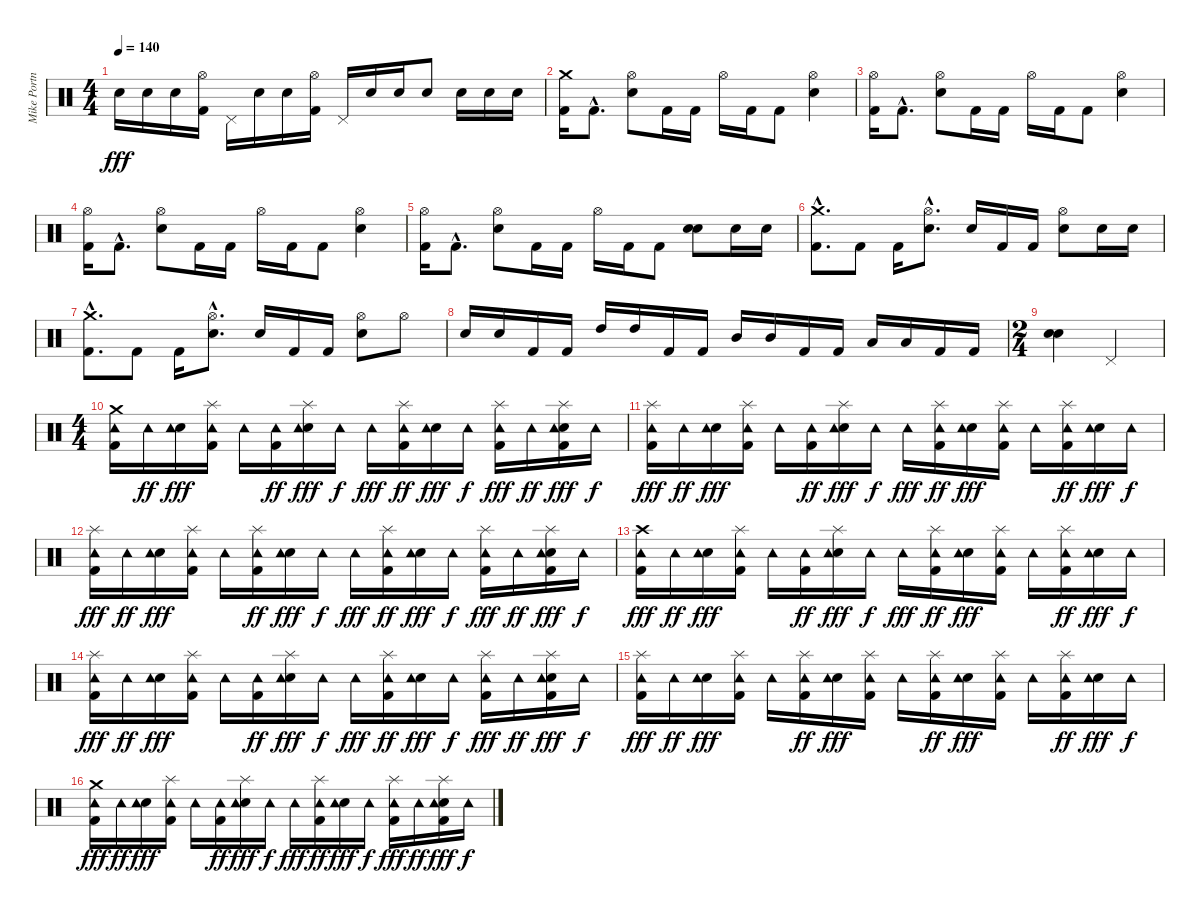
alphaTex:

\track ("Mike Portnoy - Drum" "Mike Portn") {instrument percussion}
\staff {score}
\articulation defaults
\ts (4 4)
\tempo 140
\clef neutral
\ks c "Snare (hit) 2".16{dy fff} "Snare (hit) 2".16 "Snare (hit) 2".16
("Hi-Hat (open)" "Kick (hit) 2").16 "Pedal Hi-Hat (hit)".16 "Snare (hit) 2".16 "Snare (hit) 2".16 ("Hi-Hat (open)" "Kick (hit) 2").16 "Pedal Hi-Hat (hit)".16 "Snare (hit) 2".16 "Snare (hit) 2".16 "Snare (hit) 2".8 "Snare (hit) 2".16 "Snare (hit) 2".16 "Snare (hit) 2".16 |
("Crash medium (hit)" "Kick (hit) 2").16 "Kick (hit) 2"{hac}.8{d} ("Hi-Hat (open)" "Snare (hit) 2").8 "Kick (hit) 2".16 "Kick (hit) 2".16 "Hi-Hat (open)".16 "Kick (hit) 2".16 "Kick (hit) 2".8 ("Hi-Hat (open)" "Snare (hit) 2").4 |
("Hi-Hat (open)" "Kick (hit) 2").16 "Kick (hit) 2"{hac}.8{d} ("Hi-Hat (open)" "Snare (hit) 2").8 "Kick (hit) 2".16 "Kick (hit) 2".16 "Hi-Hat (open)".16 "Kick (hit) 2".16 "Kick (hit) 2".8 ("Hi-Hat (open)" "Snare (hit) 2").4 |
("Hi-Hat (open)" "Kick (hit) 2").16 "Kick (hit) 2"{hac}.8{d} ("Hi-Hat (open)" "Snare (hit) 2").8 "Kick (hit) 2".16 "Kick (hit) 2".16 "Hi-Hat (open)".16 "Kick (hit) 2".16 "Kick (hit) 2".8 ("Hi-Hat (open)" "Snare (hit) 2").4 |
("Hi-Hat (open)" "Kick (hit) 2").16 "Kick (hit) 2"{hac}.8{d} ("Hi-Hat (open)" "Snare (hit) 2").8 "Kick (hit) 2".16 "Kick (hit) 2".16 "Hi-Hat (open)".16 "Kick (hit) 2".16 "Kick (hit) 2".8 ("Snare (hit) 2" "Snare (hit) 2").8 "Snare (hit) 2".16 "Snare (hit) 2".16 |
("Crash medium (hit)"{hac} "Kick (hit) 2"{hac}).8{d} "Kick (hit) 2".8 "Kick (hit) 2".16 ("Hi-Hat (open)"{hac} "Snare (hit) 2"{hac}).8{d} "Snare (hit) 2".16 "Kick (hit) 2".16 "Kick (hit) 2".16 ("Hi-Hat (open)" "Snare (hit) 2").8 "Snare (hit) 2".16 "Snare (hit) 2".16 |
("Crash medium (hit)"{hac} "Kick (hit) 2"{hac}).8{d} "Kick (hit) 2".8 "Kick (hit) 2".16 ("Hi-Hat (open)"{hac} "Snare (hit) 2"{hac}).8{d} "Snare (hit) 2".16 "Kick (hit) 2".16 "Kick (hit) 2".16 ("Hi-Hat (open)" "Snare (hit) 2").8 "Hi-Hat (open)".8 |
"Snare (hit) 2".16 "Snare (hit) 2".16 "Kick (hit) 2".16 "Kick (hit) 2".16 "High Tom (hit)".16 "High Tom (hit)".16 "Kick (hit) 2".16 "Kick (hit) 2".16 "Mid Tom (hit)".16 "Mid Tom (hit)".16 "Kick (hit) 2".16 "Kick (hit) 2".16 "Low Tom (hit)".16 "Low Tom (hit)".16 "Kick (hit) 2".16 "Kick (hit) 2".16 |
\ts (2 4)
("Snare (hit) 2" "Snare (hit) 2").4 "Pedal Hi-Hat (hit)".4 |
\ts (4 4)
("Crash medium (hit)" "Kick (hit) 2" "Tambourine (hit)").16 "Tambourine (hit)".16{dy ff} ("Snare (hit) 2" "Tambourine (hit)").16{dy fff} ("Splash (hit)" "Kick (hit) 2" "Tambourine (hit)").16 "Tambourine (hit)".16 ("Kick (hit) 2" "Tambourine (hit)").16{dy ff} ("Splash (hit)" "Snare (hit) 2" "Tambourine (hit)").16{dy fff} "Tambourine (hit)".16{dy f} "Tambourine (hit)".16{dy fff} ("Splash (hit)" "Kick (hit) 2" "Tambourine (hit)").16{dy ff} ("Snare (hit) 2" "Tambourine (hit)").16{dy fff} "Tambourine (hit)".16{dy f} ("Splash (hit)" "Kick (hit) 2" "Tambourine (hit)").16{dy fff} "Tambourine (hit)".16{dy ff} ("Splash (hit)" "Snare (hit) 2" "Kick (hit) 2" "Tambourine (hit)").16{dy fff} "Tambourine (hit)".16{dy f} |
("Splash (hit)" "Kick (hit) 2" "Tambourine (hit)").16{dy fff} "Tambourine (hit)".16{dy ff} ("Snare (hit) 2" "Tambourine (hit)").16{dy fff} ("Splash (hit)" "Kick (hit) 2" "Tambourine (hit)").16 "Tambourine (hit)".16 ("Kick (hit) 2" "Tambourine (hit)").16{dy ff} ("Splash (hit)" "Snare (hit) 2" "Tambourine (hit)").16{dy fff} "Tambourine (hit)".16{dy f} "Tambourine (hit)".16{dy fff} ("Splash (hit)" "Kick (hit) 2" "Tambourine (hit)").16{dy ff} ("Snare (hit) 2" "Tambourine (hit)").16{dy fff} ("Splash (hit)" "Kick (hit) 2" "Tambourine (hit)").16 "Tambourine (hit)".16 ("Splash (hit)" "Kick (hit) 2" "Tambourine (hit)").16{dy ff} ("Snare (hit) 2" "Tambourine (hit)").16{dy fff} "Tambourine (hit)".16{dy f} |
("Splash (hit)" "Kick (hit) 2" "Tambourine (hit)").16{dy fff} "Tambourine (hit)".16{dy ff} ("Snare (hit) 2" "Tambourine (hit)").16{dy fff} ("Splash (hit)" "Kick (hit) 2" "Tambourine (hit)").16 "Tambourine (hit)".16 ("Splash (hit)" "Kick (hit) 2" "Tambourine (hit)").16{dy ff} ("Snare (hit) 2" "Tambourine (hit)").16{dy fff} "Tambourine (hit)".16{dy f} "Tambourine (hit)".16{dy fff} ("Splash (hit)" "Kick (hit) 2" "Tambourine (hit)").16{dy ff} ("Snare (hit) 2" "Tambourine (hit)").16{dy fff} "Tambourine (hit)".16{dy f} ("Splash (hit)" "Kick (hit) 2" "Tambourine (hit)").16{dy fff} "Tambourine (hit)".16{dy ff} ("Splash (hit)" "Snare (hit) 2" "Kick (hit) 2" "Tambourine (hit)").16{dy fff} "Tambourine (hit)".16{dy f} |
("Crash high (hit)" "Kick (hit) 2" "Tambourine (hit)").16{dy fff} "Tambourine (hit)".16{dy ff} ("Snare (hit) 2" "Tambourine (hit)").16{dy fff} ("Splash (hit)" "Kick (hit) 2" "Tambourine (hit)").16 "Tambourine (hit)".16 ("Kick (hit) 2" "Tambourine (hit)").16{dy ff} ("Splash (hit)" "Snare (hit) 2" "Tambourine (hit)").16{dy fff} "Tambourine (hit)".16{dy f} "Tambourine (hit)".16{dy fff} ("Splash (hit)" "Kick (hit) 2" "Tambourine (hit)").16{dy ff} ("Snare (hit) 2" "Tambourine (hit)").16{dy fff} ("Splash (hit)" "Kick (hit) 2" "Tambourine (hit)").16 "Tambourine (hit)".16 ("Splash (hit)" "Kick (hit) 2" "Tambourine (hit)").16{dy ff} ("Snare (hit) 2" "Tambourine (hit)").16{dy fff} "Tambourine (hit)".16{dy f} |
("Splash (hit)" "Kick (hit) 2" "Tambourine (hit)").16{dy fff} "Tambourine (hit)".16{dy ff} ("Snare (hit) 2" "Tambourine (hit)").16{dy fff} ("Splash (hit)" "Kick (hit) 2" "Tambourine (hit)").16 "Tambourine (hit)".16 ("Kick (hit) 2" "Tambourine (hit)").16{dy ff} ("Splash (hit)" "Snare (hit) 2" "Tambourine (hit)").16{dy fff} "Tambourine (hit)".16{dy f} "Tambourine (hit)".16{dy fff} ("Splash (hit)" "Kick (hit) 2" "Tambourine (hit)").16{dy ff} ("Snare (hit) 2" "Tambourine (hit)").16{dy fff} "Tambourine (hit)".16{dy f} ("Splash (hit)" "Kick (hit) 2" "Tambourine (hit)").16{dy fff} "Tambourine (hit)".16{dy ff} ("Splash (hit)" "Snare (hit) 2" "Kick (hit) 2" "Tambourine (hit)").16{dy fff} "Tambourine (hit)".16{dy f} |
("Splash (hit)" "Kick (hit) 2" "Tambourine (hit)").16{dy fff} "Tambourine (hit)".16{dy ff} ("Snare (hit) 2" "Tambourine (hit)").16{dy fff} ("Splash (hit)" "Kick (hit) 2" "Tambourine (hit)").16 "Tambourine (hit)".16 ("Splash (hit)" "Kick (hit) 2" "Tambourine (hit)").16{dy ff} ("Snare (hit) 2" "Tambourine (hit)").16{dy fff} ("Splash (hit)" "Kick (hit) 2" "Tambourine (hit)").16 "Tambourine (hit)".16 ("Splash (hit)" "Kick (hit) 2" "Tambourine (hit)").16{dy ff} ("Snare (hit) 2" "Tambourine (hit)").16{dy fff} ("Splash (hit)" "Kick (hit) 2" "Tambourine (hit)").16 "Tambourine (hit)".16 ("Splash (hit)" "Kick (hit) 2" "Tambourine (hit)").16{dy ff} ("Snare (hit) 2" "Tambourine (hit)").16{dy fff} "Tambourine (hit)".16{dy f} |
("Crash medium (hit)" "Kick (hit) 2" "Tambourine (hit)").16{dy fff} "Tambourine (hit)".16{dy ff} ("Snare (hit) 2" "Tambourine (hit)").16{dy fff} ("Splash (hit)" "Kick (hit) 2" "Tambourine (hit)").16 "Tambourine (hit)".16 ("Kick (hit) 2" "Tambourine (hit)").16{dy ff} ("Splash (hit)" "Snare (hit) 2" "Tambourine (hit)").16{dy fff} "Tambourine (hit)".16{dy f} "Tambourine (hit)".16{dy fff} ("Splash (hit)" "Kick (hit) 2" "Tambourine (hit)").16{dy ff} ("Snare (hit) 2" "Tambourine (hit)").16{dy fff} "Tambourine (hit)".16{dy f} ("Splash (hit)" "Kick (hit) 2" "Tambourine (hit)").16{dy fff} "Tambourine (hit)".16{dy ff} ("Splash (hit)" "Snare (hit) 2" "Kick (hit) 2" "Tambourine (hit)").16{dy fff} "Tambourine (hit)".16{dy f}
